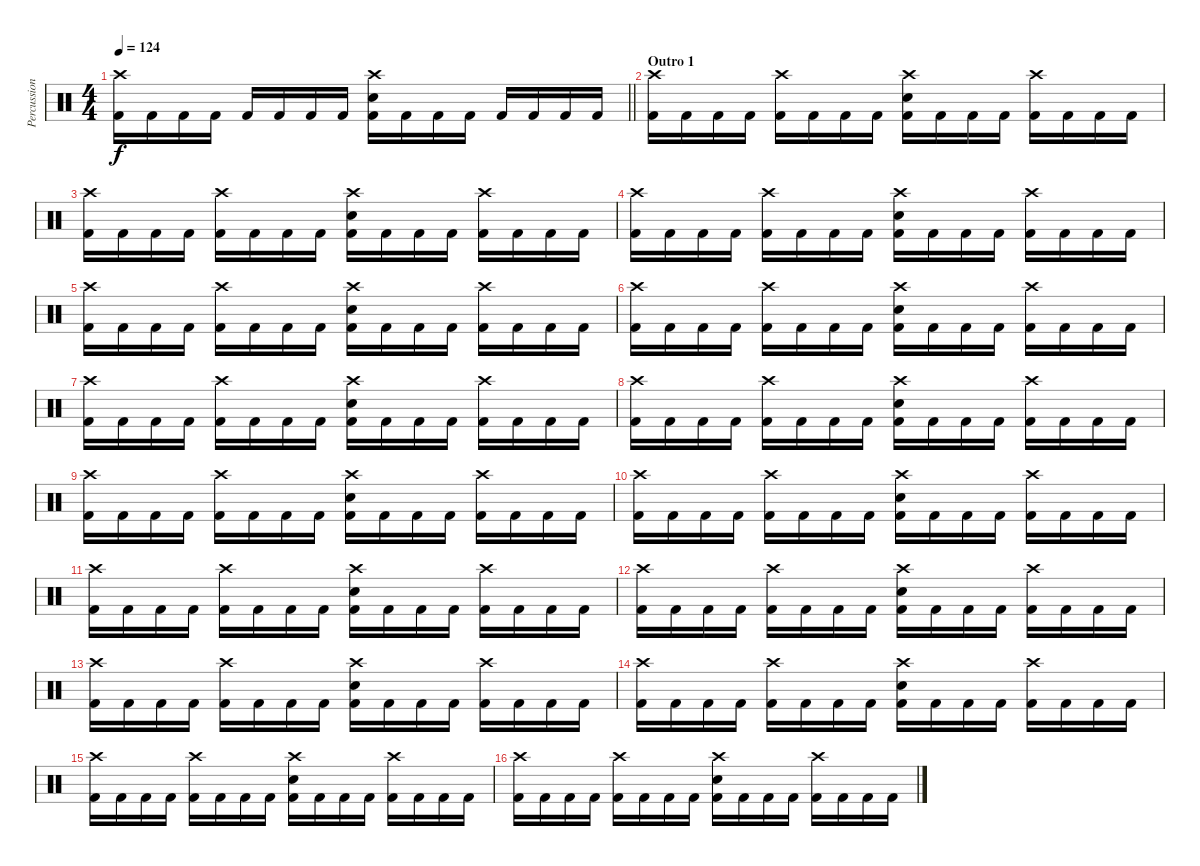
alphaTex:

\track ("Percussion" "Percussion") {instrument percussion}
\staff {score}
\articulation defaults
\ts (4 4)
\tempo 124
\clef neutral
\barLineRight lightlight
\ks c
("Crash high (hit)" "Kick (hit) 2").16{dy f} "Kick (hit) 2".16 "Kick (hit) 2".16 "Kick (hit) 2".16 "Kick (hit) 2".16 "Kick (hit) 2".16 "Kick (hit) 2".16 "Kick (hit) 2".16 ("Crash high (hit)" "Snare (hit) 2" "Kick (hit) 2").16 "Kick (hit) 2".16 "Kick (hit) 2".16 "Kick (hit) 2".16 "Kick (hit) 2".16 "Kick (hit) 2".16 "Kick (hit) 2".16 "Kick (hit) 2".16 |
\section ("" "Outro 1")
("Crash high (hit)" "Kick (hit) 2").16 "Kick (hit) 2".16 "Kick (hit) 2".16 "Kick (hit) 2".16 ("Crash high (hit)" "Kick (hit) 2").16 "Kick (hit) 2".16 "Kick (hit) 2".16 "Kick (hit) 2".16 ("Crash high (hit)" "Snare (hit) 2" "Kick (hit) 2").16 "Kick (hit) 2".16 "Kick (hit) 2".16 "Kick (hit) 2".16 ("Crash high (hit)" "Kick (hit) 2").16 "Kick (hit) 2".16 "Kick (hit) 2".16 "Kick (hit) 2".16 |
("Crash high (hit)" "Kick (hit) 2").16 "Kick (hit) 2".16 "Kick (hit) 2".16 "Kick (hit) 2".16 ("Crash high (hit)" "Kick (hit) 2").16 "Kick (hit) 2".16 "Kick (hit) 2".16 "Kick (hit) 2".16 ("Crash high (hit)" "Snare (hit) 2" "Kick (hit) 2").16 "Kick (hit) 2".16 "Kick (hit) 2".16 "Kick (hit) 2".16 ("Crash high (hit)" "Kick (hit) 2").16 "Kick (hit) 2".16 "Kick (hit) 2".16 "Kick (hit) 2".16 |
("Crash high (hit)" "Kick (hit) 2").16 "Kick (hit) 2".16 "Kick (hit) 2".16 "Kick (hit) 2".16 ("Crash high (hit)" "Kick (hit) 2").16 "Kick (hit) 2".16 "Kick (hit) 2".16 "Kick (hit) 2".16 ("Crash high (hit)" "Snare (hit) 2" "Kick (hit) 2").16 "Kick (hit) 2".16 "Kick (hit) 2".16 "Kick (hit) 2".16 ("Crash high (hit)" "Kick (hit) 2").16 "Kick (hit) 2".16 "Kick (hit) 2".16 "Kick (hit) 2".16 |
("Crash high (hit)" "Kick (hit) 2").16 "Kick (hit) 2".16 "Kick (hit) 2".16 "Kick (hit) 2".16 ("Crash high (hit)" "Kick (hit) 2").16 "Kick (hit) 2".16 "Kick (hit) 2".16 "Kick (hit) 2".16 ("Crash high (hit)" "Snare (hit) 2" "Kick (hit) 2").16 "Kick (hit) 2".16 "Kick (hit) 2".16 "Kick (hit) 2".16 ("Crash high (hit)" "Kick (hit) 2").16 "Kick (hit) 2".16 "Kick (hit) 2".16 "Kick (hit) 2".16 |
("Crash high (hit)" "Kick (hit) 2").16 "Kick (hit) 2".16 "Kick (hit) 2".16 "Kick (hit) 2".16 ("Crash high (hit)" "Kick (hit) 2").16 "Kick (hit) 2".16 "Kick (hit) 2".16 "Kick (hit) 2".16 ("Crash high (hit)" "Snare (hit) 2" "Kick (hit) 2").16 "Kick (hit) 2".16 "Kick (hit) 2".16 "Kick (hit) 2".16 ("Crash high (hit)" "Kick (hit) 2").16 "Kick (hit) 2".16 "Kick (hit) 2".16 "Kick (hit) 2".16 |
("Crash high (hit)" "Kick (hit) 2").16 "Kick (hit) 2".16 "Kick (hit) 2".16 "Kick (hit) 2".16 ("Crash high (hit)" "Kick (hit) 2").16 "Kick (hit) 2".16 "Kick (hit) 2".16 "Kick (hit) 2".16 ("Crash high (hit)" "Snare (hit) 2" "Kick (hit) 2").16 "Kick (hit) 2".16 "Kick (hit) 2".16 "Kick (hit) 2".16 ("Crash high (hit)" "Kick (hit) 2").16 "Kick (hit) 2".16 "Kick (hit) 2".16 "Kick (hit) 2".16 |
("Crash high (hit)" "Kick (hit) 2").16 "Kick (hit) 2".16 "Kick (hit) 2".16 "Kick (hit) 2".16 ("Crash high (hit)" "Kick (hit) 2").16 "Kick (hit) 2".16 "Kick (hit) 2".16 "Kick (hit) 2".16 ("Crash high (hit)" "Snare (hit) 2" "Kick (hit) 2").16 "Kick (hit) 2".16 "Kick (hit) 2".16 "Kick (hit) 2".16 ("Crash high (hit)" "Kick (hit) 2").16 "Kick (hit) 2".16 "Kick (hit) 2".16 "Kick (hit) 2".16 |
("Crash high (hit)" "Kick (hit) 2").16 "Kick (hit) 2".16 "Kick (hit) 2".16 "Kick (hit) 2".16 ("Crash high (hit)" "Kick (hit) 2").16 "Kick (hit) 2".16 "Kick (hit) 2".16 "Kick (hit) 2".16 ("Crash high (hit)" "Snare (hit) 2" "Kick (hit) 2").16 "Kick (hit) 2".16 "Kick (hit) 2".16 "Kick (hit) 2".16 ("Crash high (hit)" "Kick (hit) 2").16 "Kick (hit) 2".16 "Kick (hit) 2".16 "Kick (hit) 2".16 |
("Crash high (hit)" "Kick (hit) 2").16{volume 8} "Kick (hit) 2".16 "Kick (hit) 2".16 "Kick (hit) 2".16 ("Crash high (hit)" "Kick (hit) 2").16 "Kick (hit) 2".16 "Kick (hit) 2".16 "Kick (hit) 2".16 ("Crash high (hit)" "Snare (hit) 2" "Kick (hit) 2").16 "Kick (hit) 2".16 "Kick (hit) 2".16 "Kick (hit) 2".16 ("Crash high (hit)" "Kick (hit) 2").16 "Kick (hit) 2".16 "Kick (hit) 2".16 "Kick (hit) 2".16 |
("Crash high (hit)" "Kick (hit) 2").16 "Kick (hit) 2".16 "Kick (hit) 2".16 "Kick (hit) 2".16 ("Crash high (hit)" "Kick (hit) 2").16 "Kick (hit) 2".16 "Kick (hit) 2".16 "Kick (hit) 2".16 ("Crash high (hit)" "Snare (hit) 2" "Kick (hit) 2").16 "Kick (hit) 2".16 "Kick (hit) 2".16 "Kick (hit) 2".16 ("Crash high (hit)" "Kick (hit) 2").16 "Kick (hit) 2".16 "Kick (hit) 2".16 "Kick (hit) 2".16 |
("Crash high (hit)" "Kick (hit) 2").16 "Kick (hit) 2".16 "Kick (hit) 2".16 "Kick (hit) 2".16 ("Crash high (hit)" "Kick (hit) 2").16 "Kick (hit) 2".16 "Kick (hit) 2".16 "Kick (hit) 2".16 ("Crash high (hit)" "Snare (hit) 2" "Kick (hit) 2").16 "Kick (hit) 2".16 "Kick (hit) 2".16 "Kick (hit) 2".16 ("Crash high (hit)" "Kick (hit) 2").16 "Kick (hit) 2".16 "Kick (hit) 2".16 "Kick (hit) 2".16 |
("Crash high (hit)" "Kick (hit) 2").16 "Kick (hit) 2".16 "Kick (hit) 2".16 "Kick (hit) 2".16 ("Crash high (hit)" "Kick (hit) 2").16 "Kick (hit) 2".16 "Kick (hit) 2".16 "Kick (hit) 2".16 ("Crash high (hit)" "Snare (hit) 2" "Kick (hit) 2").16 "Kick (hit) 2".16 "Kick (hit) 2".16 "Kick (hit) 2".16 ("Crash high (hit)" "Kick (hit) 2").16 "Kick (hit) 2".16 "Kick (hit) 2".16 "Kick (hit) 2".16 |
("Crash high (hit)" "Kick (hit) 2").16{volume 0} "Kick (hit) 2".16 "Kick (hit) 2".16 "Kick (hit) 2".16 ("Crash high (hit)" "Kick (hit) 2").16 "Kick (hit) 2".16 "Kick (hit) 2".16 "Kick (hit) 2".16 ("Crash high (hit)" "Snare (hit) 2" "Kick (hit) 2").16 "Kick (hit) 2".16 "Kick (hit) 2".16 "Kick (hit) 2".16 ("Crash high (hit)" "Kick (hit) 2").16 "Kick (hit) 2".16 "Kick (hit) 2".16 "Kick (hit) 2".16 |
("Crash high (hit)" "Kick (hit) 2").16 "Kick (hit) 2".16 "Kick (hit) 2".16 "Kick (hit) 2".16 ("Crash high (hit)" "Kick (hit) 2").16 "Kick (hit) 2".16 "Kick (hit) 2".16 "Kick (hit) 2".16 ("Crash high (hit)" "Snare (hit) 2" "Kick (hit) 2").16 "Kick (hit) 2".16 "Kick (hit) 2".16 "Kick (hit) 2".16 ("Crash high (hit)" "Kick (hit) 2").16 "Kick (hit) 2".16 "Kick (hit) 2".16 "Kick (hit) 2".16 |
("Crash high (hit)" "Kick (hit) 2").16 "Kick (hit) 2".16 "Kick (hit) 2".16 "Kick (hit) 2".16 ("Crash high (hit)" "Kick (hit) 2").16 "Kick (hit) 2".16 "Kick (hit) 2".16 "Kick (hit) 2".16 ("Crash high (hit)" "Snare (hit) 2" "Kick (hit) 2").16 "Kick (hit) 2".16 "Kick (hit) 2".16 "Kick (hit) 2".16 ("Crash high (hit)" "Kick (hit) 2").16 "Kick (hit) 2".16 "Kick (hit) 2".16 "Kick (hit) 2".16
